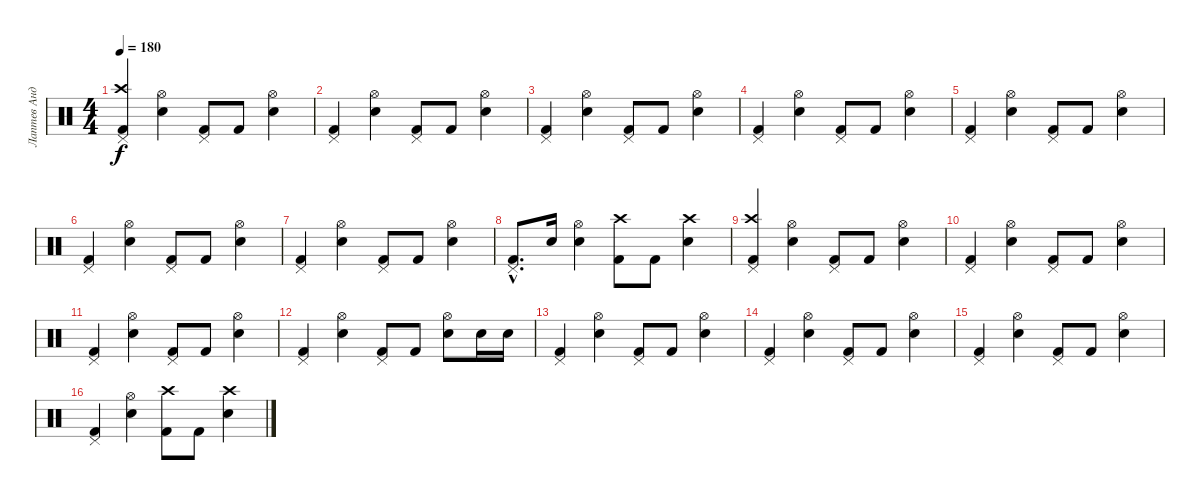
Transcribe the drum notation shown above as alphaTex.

\track ("Лаптев Андрей" "Лаптев Анд") {instrument percussion}
\staff {score}
\articulation defaults
\ts (4 4)
\tempo 180
\clef neutral
\ks c
("Kick (hit) 2" "Crash high (hit)" "Pedal Hi-Hat (hit)").4{dy f} ("Snare (hit) 2" "Hi-Hat (open)").4 ("Kick (hit) 2" "Pedal Hi-Hat (hit)").8 "Kick (hit) 2".8 ("Snare (hit) 2" "Hi-Hat (open)").4 |
("Kick (hit) 2" "Pedal Hi-Hat (hit)").4 ("Snare (hit) 2" "Hi-Hat (open)").4 ("Kick (hit) 2" "Pedal Hi-Hat (hit)").8 "Kick (hit) 2".8 ("Snare (hit) 2" "Hi-Hat (open)").4 |
("Kick (hit) 2" "Pedal Hi-Hat (hit)").4 ("Snare (hit) 2" "Hi-Hat (open)").4 ("Kick (hit) 2" "Pedal Hi-Hat (hit)").8 "Kick (hit) 2".8 ("Snare (hit) 2" "Hi-Hat (open)").4 |
("Kick (hit) 2" "Pedal Hi-Hat (hit)").4 ("Snare (hit) 2" "Hi-Hat (open)").4 ("Kick (hit) 2" "Pedal Hi-Hat (hit)").8 "Kick (hit) 2".8 ("Snare (hit) 2" "Hi-Hat (open)").4 |
("Kick (hit) 2" "Pedal Hi-Hat (hit)").4 ("Snare (hit) 2" "Hi-Hat (open)").4 ("Kick (hit) 2" "Pedal Hi-Hat (hit)").8 "Kick (hit) 2".8 ("Snare (hit) 2" "Hi-Hat (open)").4 |
("Kick (hit) 2" "Pedal Hi-Hat (hit)").4 ("Snare (hit) 2" "Hi-Hat (open)").4 ("Kick (hit) 2" "Pedal Hi-Hat (hit)").8 "Kick (hit) 2".8 ("Snare (hit) 2" "Hi-Hat (open)").4 |
("Kick (hit) 2" "Pedal Hi-Hat (hit)").4 ("Snare (hit) 2" "Hi-Hat (open)").4 ("Kick (hit) 2" "Pedal Hi-Hat (hit)").8 "Kick (hit) 2".8 ("Snare (hit) 2" "Hi-Hat (open)").4 |
("Kick (hit) 2"{hac} "Pedal Hi-Hat (hit)"{hac}).8{d} "Snare (hit) 2".16 ("Snare (hit) 2" "Hi-Hat (open)").4 ("Kick (hit) 2" "Crash high (hit)").8 "Kick (hit) 2".8 ("Snare (hit) 2" "Crash high (hit)").4 |
("Kick (hit) 2" "Crash high (hit)" "Pedal Hi-Hat (hit)").4 ("Snare (hit) 2" "Hi-Hat (open)").4 ("Kick (hit) 2" "Pedal Hi-Hat (hit)").8 "Kick (hit) 2".8 ("Snare (hit) 2" "Hi-Hat (open)").4 |
("Kick (hit) 2" "Pedal Hi-Hat (hit)").4 ("Snare (hit) 2" "Hi-Hat (open)").4 ("Kick (hit) 2" "Pedal Hi-Hat (hit)").8 "Kick (hit) 2".8 ("Snare (hit) 2" "Hi-Hat (open)").4 |
("Kick (hit) 2" "Pedal Hi-Hat (hit)").4 ("Snare (hit) 2" "Hi-Hat (open)").4 ("Kick (hit) 2" "Pedal Hi-Hat (hit)").8 "Kick (hit) 2".8 ("Snare (hit) 2" "Hi-Hat (open)").4 |
("Kick (hit) 2" "Pedal Hi-Hat (hit)").4 ("Snare (hit) 2" "Hi-Hat (open)").4 ("Kick (hit) 2" "Pedal Hi-Hat (hit)").8 "Kick (hit) 2".8 ("Snare (hit) 2" "Hi-Hat (open)").8 "Snare (hit) 2".16 "Snare (hit) 2".16 |
("Kick (hit) 2" "Pedal Hi-Hat (hit)").4 ("Snare (hit) 2" "Hi-Hat (open)").4 ("Kick (hit) 2" "Pedal Hi-Hat (hit)").8 "Kick (hit) 2".8 ("Snare (hit) 2" "Hi-Hat (open)").4 |
("Kick (hit) 2" "Pedal Hi-Hat (hit)").4 ("Snare (hit) 2" "Hi-Hat (open)").4 ("Kick (hit) 2" "Pedal Hi-Hat (hit)").8 "Kick (hit) 2".8 ("Snare (hit) 2" "Hi-Hat (open)").4 |
("Kick (hit) 2" "Pedal Hi-Hat (hit)").4 ("Snare (hit) 2" "Hi-Hat (open)").4 ("Kick (hit) 2" "Pedal Hi-Hat (hit)").8 "Kick (hit) 2".8 ("Snare (hit) 2" "Hi-Hat (open)").4 |
("Kick (hit) 2" "Pedal Hi-Hat (hit)").4 ("Snare (hit) 2" "Hi-Hat (open)").4 ("Kick (hit) 2" "Crash high (hit)").8 "Kick (hit) 2".8 ("Snare (hit) 2" "Crash high (hit)").4
